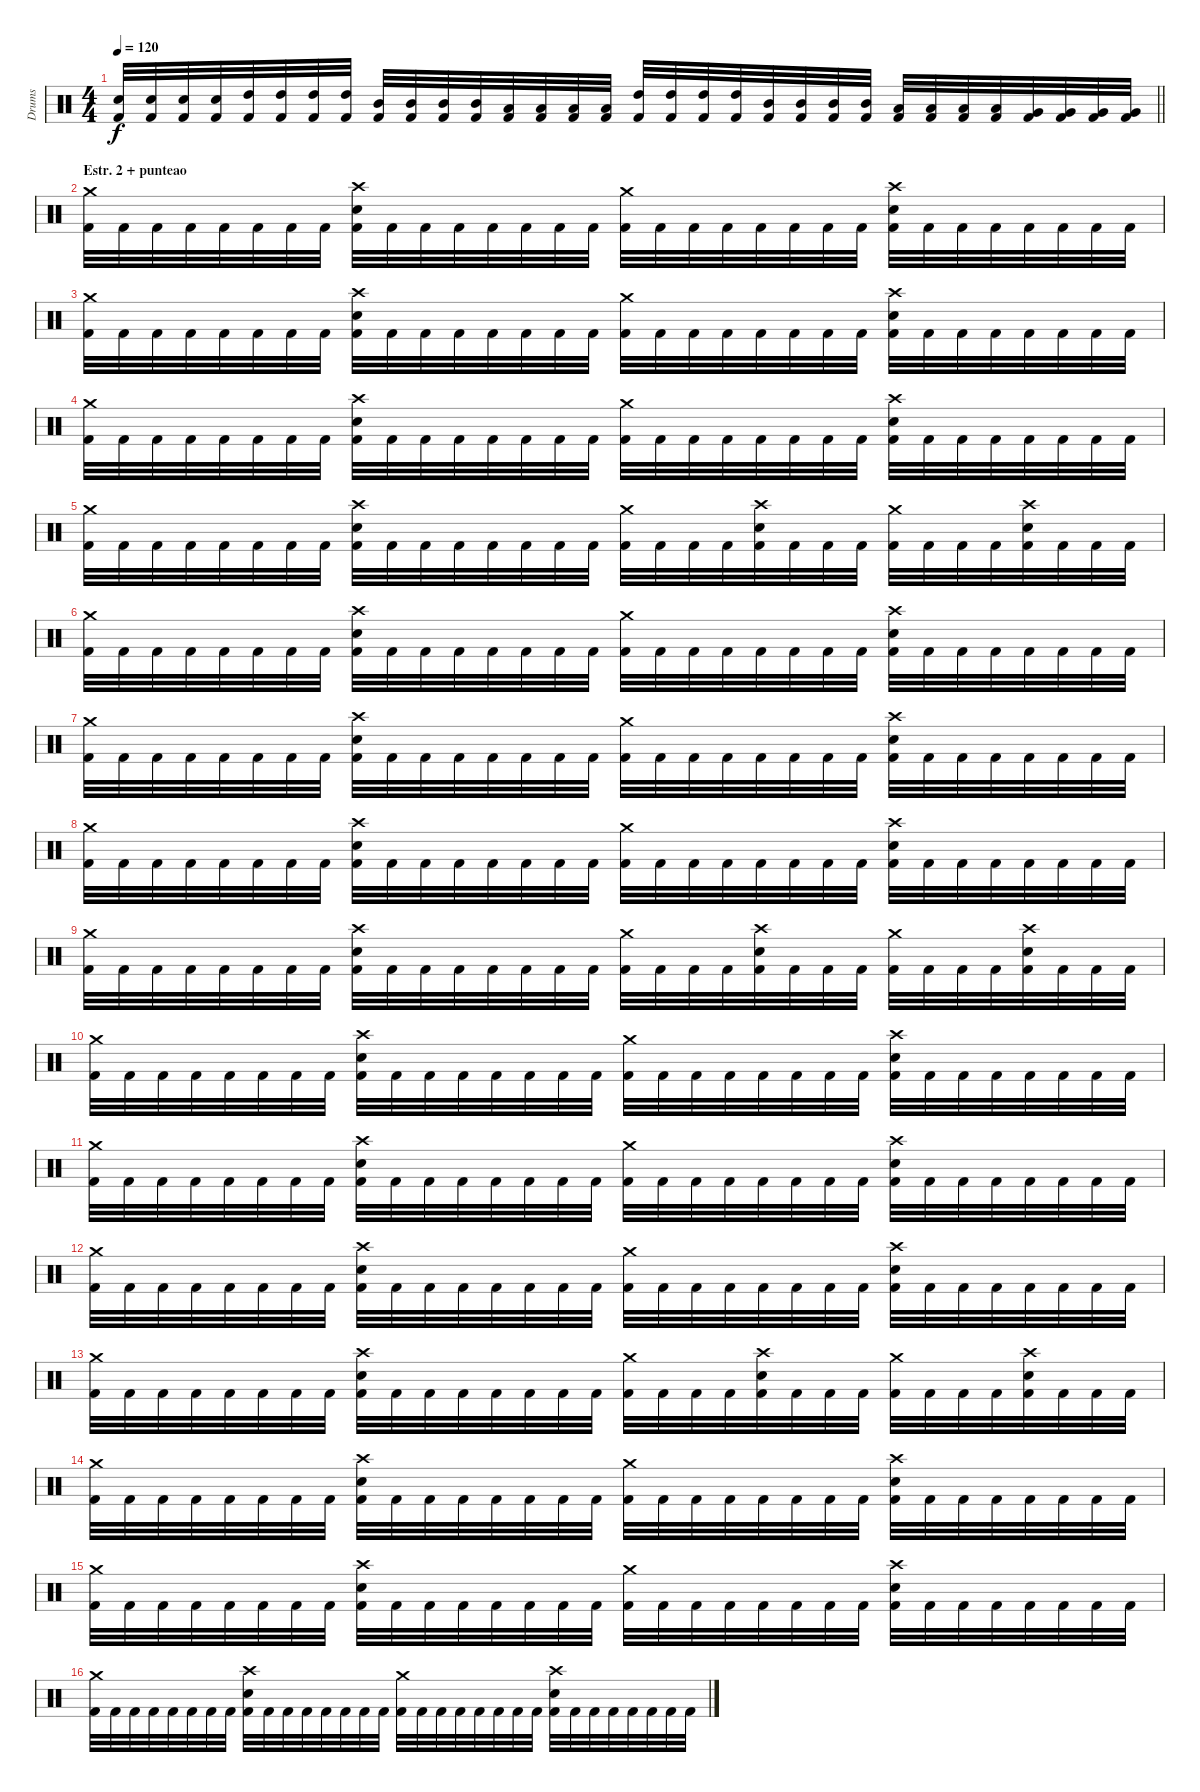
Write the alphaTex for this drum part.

\track ("Drums" "Drums") {instrument percussion}
\staff {score}
\articulation defaults
\ts (4 4)
\tempo 120
\clef neutral
\barLineRight lightlight
\ks c
("Kick (hit) 2" "Electric Snare (hit)").32{dy f} ("Kick (hit) 2" "Electric Snare (hit)").32 ("Kick (hit) 2" "Electric Snare (hit)").32 ("Kick (hit) 2" "Electric Snare (hit)").32 ("Kick (hit) 2" "High Tom (hit)").32 ("Kick (hit) 2" "High Tom (hit)").32 ("Kick (hit) 2" "High Tom (hit)").32 ("Kick (hit) 2" "High Tom (hit)").32 ("Kick (hit) 2" "Mid Tom (hit)").32 ("Kick (hit) 2" "Mid Tom (hit)").32 ("Kick (hit) 2" "Mid Tom (hit)").32 ("Kick (hit) 2" "Mid Tom (hit)").32 ("Kick (hit) 2" "Low Tom (hit)").32 ("Kick (hit) 2" "Low Tom (hit)").32 ("Kick (hit) 2" "Low Tom (hit)").32 ("Kick (hit) 2" "Low Tom (hit)").32 ("Kick (hit) 2" "High Tom (hit)").32 ("Kick (hit) 2" "High Tom (hit)").32 ("Kick (hit) 2" "High Tom (hit)").32 ("Kick (hit) 2" "High Tom (hit)").32 ("Kick (hit) 2" "Mid Tom (hit)").32 ("Kick (hit) 2" "Mid Tom (hit)").32 ("Kick (hit) 2" "Mid Tom (hit)").32 ("Kick (hit) 2" "Mid Tom (hit)").32 ("Kick (hit) 2" "Low Tom (hit)").32 ("Kick (hit) 2" "Low Tom (hit)").32 ("Kick (hit) 2" "Low Tom (hit)").32 ("Kick (hit) 2" "Low Tom (hit)").32 ("Kick (hit) 2" "Very Low Tom (hit)").32 ("Kick (hit) 2" "Very Low Tom (hit)").32 ("Kick (hit) 2" "Very Low Tom (hit)").32 ("Kick (hit) 2" "Very Low Tom (hit)").32 |
\section ("" "Estr. 2 + punteao")
("Kick (hit) 2" "Crash medium (hit)").32 "Kick (hit) 2".32 "Kick (hit) 2".32 "Kick (hit) 2".32 "Kick (hit) 2".32 "Kick (hit) 2".32 "Kick (hit) 2".32 "Kick (hit) 2".32 ("Kick (hit) 2" "Electric Snare (hit)" "Crash high (hit)").32 "Kick (hit) 2".32 "Kick (hit) 2".32 "Kick (hit) 2".32 "Kick (hit) 2".32 "Kick (hit) 2".32 "Kick (hit) 2".32 "Kick (hit) 2".32 ("Kick (hit) 2" "Crash medium (hit)").32 "Kick (hit) 2".32 "Kick (hit) 2".32 "Kick (hit) 2".32 "Kick (hit) 2".32 "Kick (hit) 2".32 "Kick (hit) 2".32 "Kick (hit) 2".32 ("Kick (hit) 2" "Electric Snare (hit)" "Crash high (hit)").32 "Kick (hit) 2".32 "Kick (hit) 2".32 "Kick (hit) 2".32 "Kick (hit) 2".32 "Kick (hit) 2".32 "Kick (hit) 2".32 "Kick (hit) 2".32 |
("Kick (hit) 2" "Crash medium (hit)").32 "Kick (hit) 2".32 "Kick (hit) 2".32 "Kick (hit) 2".32 "Kick (hit) 2".32 "Kick (hit) 2".32 "Kick (hit) 2".32 "Kick (hit) 2".32 ("Kick (hit) 2" "Electric Snare (hit)" "Crash high (hit)").32 "Kick (hit) 2".32 "Kick (hit) 2".32 "Kick (hit) 2".32 "Kick (hit) 2".32 "Kick (hit) 2".32 "Kick (hit) 2".32 "Kick (hit) 2".32 ("Kick (hit) 2" "Crash medium (hit)").32 "Kick (hit) 2".32 "Kick (hit) 2".32 "Kick (hit) 2".32 "Kick (hit) 2".32 "Kick (hit) 2".32 "Kick (hit) 2".32 "Kick (hit) 2".32 ("Kick (hit) 2" "Electric Snare (hit)" "Crash high (hit)").32 "Kick (hit) 2".32 "Kick (hit) 2".32 "Kick (hit) 2".32 "Kick (hit) 2".32 "Kick (hit) 2".32 "Kick (hit) 2".32 "Kick (hit) 2".32 |
("Kick (hit) 2" "Crash medium (hit)").32 "Kick (hit) 2".32 "Kick (hit) 2".32 "Kick (hit) 2".32 "Kick (hit) 2".32 "Kick (hit) 2".32 "Kick (hit) 2".32 "Kick (hit) 2".32 ("Kick (hit) 2" "Electric Snare (hit)" "Crash high (hit)").32 "Kick (hit) 2".32 "Kick (hit) 2".32 "Kick (hit) 2".32 "Kick (hit) 2".32 "Kick (hit) 2".32 "Kick (hit) 2".32 "Kick (hit) 2".32 ("Kick (hit) 2" "Crash medium (hit)").32 "Kick (hit) 2".32 "Kick (hit) 2".32 "Kick (hit) 2".32 "Kick (hit) 2".32 "Kick (hit) 2".32 "Kick (hit) 2".32 "Kick (hit) 2".32 ("Kick (hit) 2" "Electric Snare (hit)" "Crash high (hit)").32 "Kick (hit) 2".32 "Kick (hit) 2".32 "Kick (hit) 2".32 "Kick (hit) 2".32 "Kick (hit) 2".32 "Kick (hit) 2".32 "Kick (hit) 2".32 |
("Kick (hit) 2" "Crash medium (hit)").32 "Kick (hit) 2".32 "Kick (hit) 2".32 "Kick (hit) 2".32 "Kick (hit) 2".32 "Kick (hit) 2".32 "Kick (hit) 2".32 "Kick (hit) 2".32 ("Kick (hit) 2" "Electric Snare (hit)" "Crash high (hit)").32 "Kick (hit) 2".32 "Kick (hit) 2".32 "Kick (hit) 2".32 "Kick (hit) 2".32 "Kick (hit) 2".32 "Kick (hit) 2".32 "Kick (hit) 2".32 ("Kick (hit) 2" "Crash medium (hit)").32 "Kick (hit) 2".32 "Kick (hit) 2".32 "Kick (hit) 2".32 ("Kick (hit) 2" "Electric Snare (hit)" "Crash high (hit)").32 "Kick (hit) 2".32 "Kick (hit) 2".32 "Kick (hit) 2".32 ("Kick (hit) 2" "Crash medium (hit)").32 "Kick (hit) 2".32 "Kick (hit) 2".32 "Kick (hit) 2".32 ("Kick (hit) 2" "Electric Snare (hit)" "Crash high (hit)").32 "Kick (hit) 2".32 "Kick (hit) 2".32 "Kick (hit) 2".32 |
("Kick (hit) 2" "Crash medium (hit)").32 "Kick (hit) 2".32 "Kick (hit) 2".32 "Kick (hit) 2".32 "Kick (hit) 2".32 "Kick (hit) 2".32 "Kick (hit) 2".32 "Kick (hit) 2".32 ("Kick (hit) 2" "Electric Snare (hit)" "Crash high (hit)").32 "Kick (hit) 2".32 "Kick (hit) 2".32 "Kick (hit) 2".32 "Kick (hit) 2".32 "Kick (hit) 2".32 "Kick (hit) 2".32 "Kick (hit) 2".32 ("Kick (hit) 2" "Crash medium (hit)").32 "Kick (hit) 2".32 "Kick (hit) 2".32 "Kick (hit) 2".32 "Kick (hit) 2".32 "Kick (hit) 2".32 "Kick (hit) 2".32 "Kick (hit) 2".32 ("Kick (hit) 2" "Electric Snare (hit)" "Crash high (hit)").32 "Kick (hit) 2".32 "Kick (hit) 2".32 "Kick (hit) 2".32 "Kick (hit) 2".32 "Kick (hit) 2".32 "Kick (hit) 2".32 "Kick (hit) 2".32 |
("Kick (hit) 2" "Crash medium (hit)").32 "Kick (hit) 2".32 "Kick (hit) 2".32 "Kick (hit) 2".32 "Kick (hit) 2".32 "Kick (hit) 2".32 "Kick (hit) 2".32 "Kick (hit) 2".32 ("Kick (hit) 2" "Electric Snare (hit)" "Crash high (hit)").32 "Kick (hit) 2".32 "Kick (hit) 2".32 "Kick (hit) 2".32 "Kick (hit) 2".32 "Kick (hit) 2".32 "Kick (hit) 2".32 "Kick (hit) 2".32 ("Kick (hit) 2" "Crash medium (hit)").32 "Kick (hit) 2".32 "Kick (hit) 2".32 "Kick (hit) 2".32 "Kick (hit) 2".32 "Kick (hit) 2".32 "Kick (hit) 2".32 "Kick (hit) 2".32 ("Kick (hit) 2" "Electric Snare (hit)" "Crash high (hit)").32 "Kick (hit) 2".32 "Kick (hit) 2".32 "Kick (hit) 2".32 "Kick (hit) 2".32 "Kick (hit) 2".32 "Kick (hit) 2".32 "Kick (hit) 2".32 |
("Kick (hit) 2" "Crash medium (hit)").32 "Kick (hit) 2".32 "Kick (hit) 2".32 "Kick (hit) 2".32 "Kick (hit) 2".32 "Kick (hit) 2".32 "Kick (hit) 2".32 "Kick (hit) 2".32 ("Kick (hit) 2" "Electric Snare (hit)" "Crash high (hit)").32 "Kick (hit) 2".32 "Kick (hit) 2".32 "Kick (hit) 2".32 "Kick (hit) 2".32 "Kick (hit) 2".32 "Kick (hit) 2".32 "Kick (hit) 2".32 ("Kick (hit) 2" "Crash medium (hit)").32 "Kick (hit) 2".32 "Kick (hit) 2".32 "Kick (hit) 2".32 "Kick (hit) 2".32 "Kick (hit) 2".32 "Kick (hit) 2".32 "Kick (hit) 2".32 ("Kick (hit) 2" "Electric Snare (hit)" "Crash high (hit)").32 "Kick (hit) 2".32 "Kick (hit) 2".32 "Kick (hit) 2".32 "Kick (hit) 2".32 "Kick (hit) 2".32 "Kick (hit) 2".32 "Kick (hit) 2".32 |
("Kick (hit) 2" "Crash medium (hit)").32 "Kick (hit) 2".32 "Kick (hit) 2".32 "Kick (hit) 2".32 "Kick (hit) 2".32 "Kick (hit) 2".32 "Kick (hit) 2".32 "Kick (hit) 2".32 ("Kick (hit) 2" "Electric Snare (hit)" "Crash high (hit)").32 "Kick (hit) 2".32 "Kick (hit) 2".32 "Kick (hit) 2".32 "Kick (hit) 2".32 "Kick (hit) 2".32 "Kick (hit) 2".32 "Kick (hit) 2".32 ("Kick (hit) 2" "Crash medium (hit)").32 "Kick (hit) 2".32 "Kick (hit) 2".32 "Kick (hit) 2".32 ("Kick (hit) 2" "Electric Snare (hit)" "Crash high (hit)").32 "Kick (hit) 2".32 "Kick (hit) 2".32 "Kick (hit) 2".32 ("Kick (hit) 2" "Crash medium (hit)").32 "Kick (hit) 2".32 "Kick (hit) 2".32 "Kick (hit) 2".32 ("Kick (hit) 2" "Electric Snare (hit)" "Crash high (hit)").32 "Kick (hit) 2".32 "Kick (hit) 2".32 "Kick (hit) 2".32 |
("Kick (hit) 2" "Crash medium (hit)").32 "Kick (hit) 2".32 "Kick (hit) 2".32 "Kick (hit) 2".32 "Kick (hit) 2".32 "Kick (hit) 2".32 "Kick (hit) 2".32 "Kick (hit) 2".32 ("Kick (hit) 2" "Electric Snare (hit)" "Crash high (hit)").32 "Kick (hit) 2".32 "Kick (hit) 2".32 "Kick (hit) 2".32 "Kick (hit) 2".32 "Kick (hit) 2".32 "Kick (hit) 2".32 "Kick (hit) 2".32 ("Kick (hit) 2" "Crash medium (hit)").32 "Kick (hit) 2".32 "Kick (hit) 2".32 "Kick (hit) 2".32 "Kick (hit) 2".32 "Kick (hit) 2".32 "Kick (hit) 2".32 "Kick (hit) 2".32 ("Kick (hit) 2" "Electric Snare (hit)" "Crash high (hit)").32 "Kick (hit) 2".32 "Kick (hit) 2".32 "Kick (hit) 2".32 "Kick (hit) 2".32 "Kick (hit) 2".32 "Kick (hit) 2".32 "Kick (hit) 2".32 |
("Kick (hit) 2" "Crash medium (hit)").32 "Kick (hit) 2".32 "Kick (hit) 2".32 "Kick (hit) 2".32 "Kick (hit) 2".32 "Kick (hit) 2".32 "Kick (hit) 2".32 "Kick (hit) 2".32 ("Kick (hit) 2" "Electric Snare (hit)" "Crash high (hit)").32 "Kick (hit) 2".32 "Kick (hit) 2".32 "Kick (hit) 2".32 "Kick (hit) 2".32 "Kick (hit) 2".32 "Kick (hit) 2".32 "Kick (hit) 2".32 ("Kick (hit) 2" "Crash medium (hit)").32 "Kick (hit) 2".32 "Kick (hit) 2".32 "Kick (hit) 2".32 "Kick (hit) 2".32 "Kick (hit) 2".32 "Kick (hit) 2".32 "Kick (hit) 2".32 ("Kick (hit) 2" "Electric Snare (hit)" "Crash high (hit)").32 "Kick (hit) 2".32 "Kick (hit) 2".32 "Kick (hit) 2".32 "Kick (hit) 2".32 "Kick (hit) 2".32 "Kick (hit) 2".32 "Kick (hit) 2".32 |
("Kick (hit) 2" "Crash medium (hit)").32 "Kick (hit) 2".32 "Kick (hit) 2".32 "Kick (hit) 2".32 "Kick (hit) 2".32 "Kick (hit) 2".32 "Kick (hit) 2".32 "Kick (hit) 2".32 ("Kick (hit) 2" "Electric Snare (hit)" "Crash high (hit)").32 "Kick (hit) 2".32 "Kick (hit) 2".32 "Kick (hit) 2".32 "Kick (hit) 2".32 "Kick (hit) 2".32 "Kick (hit) 2".32 "Kick (hit) 2".32 ("Kick (hit) 2" "Crash medium (hit)").32 "Kick (hit) 2".32 "Kick (hit) 2".32 "Kick (hit) 2".32 "Kick (hit) 2".32 "Kick (hit) 2".32 "Kick (hit) 2".32 "Kick (hit) 2".32 ("Kick (hit) 2" "Electric Snare (hit)" "Crash high (hit)").32 "Kick (hit) 2".32 "Kick (hit) 2".32 "Kick (hit) 2".32 "Kick (hit) 2".32 "Kick (hit) 2".32 "Kick (hit) 2".32 "Kick (hit) 2".32 |
("Kick (hit) 2" "Crash medium (hit)").32 "Kick (hit) 2".32 "Kick (hit) 2".32 "Kick (hit) 2".32 "Kick (hit) 2".32 "Kick (hit) 2".32 "Kick (hit) 2".32 "Kick (hit) 2".32 ("Kick (hit) 2" "Electric Snare (hit)" "Crash high (hit)").32 "Kick (hit) 2".32 "Kick (hit) 2".32 "Kick (hit) 2".32 "Kick (hit) 2".32 "Kick (hit) 2".32 "Kick (hit) 2".32 "Kick (hit) 2".32 ("Kick (hit) 2" "Crash medium (hit)").32 "Kick (hit) 2".32 "Kick (hit) 2".32 "Kick (hit) 2".32 ("Kick (hit) 2" "Electric Snare (hit)" "Crash high (hit)").32 "Kick (hit) 2".32 "Kick (hit) 2".32 "Kick (hit) 2".32 ("Kick (hit) 2" "Crash medium (hit)").32 "Kick (hit) 2".32 "Kick (hit) 2".32 "Kick (hit) 2".32 ("Kick (hit) 2" "Electric Snare (hit)" "Crash high (hit)").32 "Kick (hit) 2".32 "Kick (hit) 2".32 "Kick (hit) 2".32 |
("Kick (hit) 2" "Crash medium (hit)").32 "Kick (hit) 2".32 "Kick (hit) 2".32 "Kick (hit) 2".32 "Kick (hit) 2".32 "Kick (hit) 2".32 "Kick (hit) 2".32 "Kick (hit) 2".32 ("Kick (hit) 2" "Electric Snare (hit)" "Crash high (hit)").32 "Kick (hit) 2".32 "Kick (hit) 2".32 "Kick (hit) 2".32 "Kick (hit) 2".32 "Kick (hit) 2".32 "Kick (hit) 2".32 "Kick (hit) 2".32 ("Kick (hit) 2" "Crash medium (hit)").32 "Kick (hit) 2".32 "Kick (hit) 2".32 "Kick (hit) 2".32 "Kick (hit) 2".32 "Kick (hit) 2".32 "Kick (hit) 2".32 "Kick (hit) 2".32 ("Kick (hit) 2" "Electric Snare (hit)" "Crash high (hit)").32 "Kick (hit) 2".32 "Kick (hit) 2".32 "Kick (hit) 2".32 "Kick (hit) 2".32 "Kick (hit) 2".32 "Kick (hit) 2".32 "Kick (hit) 2".32 |
("Kick (hit) 2" "Crash medium (hit)").32 "Kick (hit) 2".32 "Kick (hit) 2".32 "Kick (hit) 2".32 "Kick (hit) 2".32 "Kick (hit) 2".32 "Kick (hit) 2".32 "Kick (hit) 2".32 ("Kick (hit) 2" "Electric Snare (hit)" "Crash high (hit)").32 "Kick (hit) 2".32 "Kick (hit) 2".32 "Kick (hit) 2".32 "Kick (hit) 2".32 "Kick (hit) 2".32 "Kick (hit) 2".32 "Kick (hit) 2".32 ("Kick (hit) 2" "Crash medium (hit)").32 "Kick (hit) 2".32 "Kick (hit) 2".32 "Kick (hit) 2".32 "Kick (hit) 2".32 "Kick (hit) 2".32 "Kick (hit) 2".32 "Kick (hit) 2".32 ("Kick (hit) 2" "Electric Snare (hit)" "Crash high (hit)").32 "Kick (hit) 2".32 "Kick (hit) 2".32 "Kick (hit) 2".32 "Kick (hit) 2".32 "Kick (hit) 2".32 "Kick (hit) 2".32 "Kick (hit) 2".32 |
("Kick (hit) 2" "Crash medium (hit)").32 "Kick (hit) 2".32 "Kick (hit) 2".32 "Kick (hit) 2".32 "Kick (hit) 2".32 "Kick (hit) 2".32 "Kick (hit) 2".32 "Kick (hit) 2".32 ("Kick (hit) 2" "Electric Snare (hit)" "Crash high (hit)").32 "Kick (hit) 2".32 "Kick (hit) 2".32 "Kick (hit) 2".32 "Kick (hit) 2".32 "Kick (hit) 2".32 "Kick (hit) 2".32 "Kick (hit) 2".32 ("Kick (hit) 2" "Crash medium (hit)").32 "Kick (hit) 2".32 "Kick (hit) 2".32 "Kick (hit) 2".32 "Kick (hit) 2".32 "Kick (hit) 2".32 "Kick (hit) 2".32 "Kick (hit) 2".32 ("Kick (hit) 2" "Electric Snare (hit)" "Crash high (hit)").32 "Kick (hit) 2".32 "Kick (hit) 2".32 "Kick (hit) 2".32 "Kick (hit) 2".32 "Kick (hit) 2".32 "Kick (hit) 2".32 "Kick (hit) 2".32
